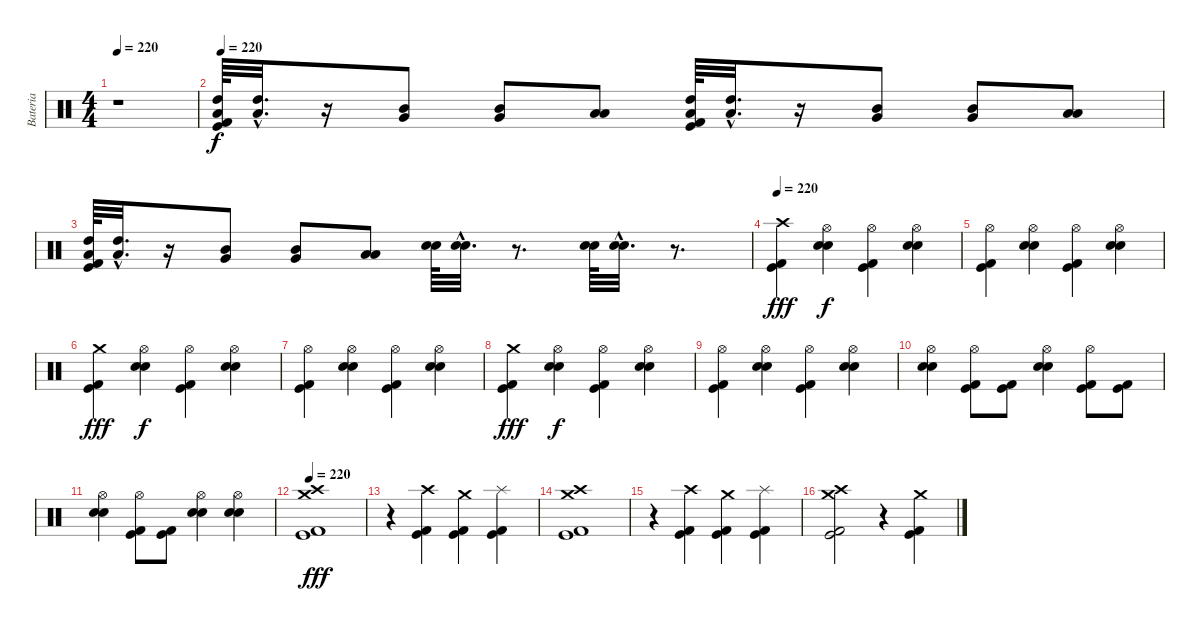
\track ("Bateria" "Bateria") {instrument percussion}
\staff {score}
\articulation defaults
\ts (4 4)
\tempo 220
\clef neutral
\ks c
r.1{dy fff} |
\tempo 220
("High Tom (hit)" "Low Tom (hit)" "Kick (hit) 2" "Kick (hit)").64{dy f} ("High Tom (hit)"{hac} "Low Tom (hit)"{hac}).32{d} r.16 ("Mid Tom (hit)" "Very Low Tom (hit)").8 ("Mid Tom (hit)" "Very Low Tom (hit)").8 ("Low Tom (hit)" "Low Floor Tom (hit)").8 ("High Tom (hit)" "Low Tom (hit)" "Kick (hit) 2" "Kick (hit)").64 ("High Tom (hit)"{hac} "Low Tom (hit)"{hac}).32{d} r.16 ("Mid Tom (hit)" "Very Low Tom (hit)").8 ("Mid Tom (hit)" "Very Low Tom (hit)").8 ("Low Tom (hit)" "Low Floor Tom (hit)").8 |
("High Tom (hit)" "Low Tom (hit)" "Kick (hit) 2" "Kick (hit)").64 ("High Tom (hit)"{hac} "Low Tom (hit)"{hac}).32{d} r.16 ("Mid Tom (hit)" "Very Low Tom (hit)").8 ("Mid Tom (hit)" "Very Low Tom (hit)").8 ("Low Tom (hit)" "Low Floor Tom (hit)").8 ("Electric Snare (hit)" "Snare (hit) 2").64 ("Electric Snare (hit)"{hac} "Snare (hit) 2"{hac}).32{d} r.8{d} ("Electric Snare (hit)" "Snare (hit) 2").64 ("Electric Snare (hit)"{hac} "Snare (hit) 2"{hac}).32{d} r.8{d} |
\tempo 220
("Crash high (hit)" "Kick (hit) 2" "Kick (hit)").4{dy fff} ("Hi-Hat (open)" "Electric Snare (hit)" "Snare (hit) 2").4{dy f} ("Hi-Hat (open)" "Kick (hit) 2" "Kick (hit)").4 ("Hi-Hat (open)" "Electric Snare (hit)" "Snare (hit) 2").4 |
("Hi-Hat (open)" "Kick (hit) 2" "Kick (hit)").4 ("Hi-Hat (open)" "Electric Snare (hit)" "Snare (hit) 2").4 ("Hi-Hat (open)" "Kick (hit) 2" "Kick (hit)").4 ("Hi-Hat (open)" "Electric Snare (hit)" "Snare (hit) 2").4 |
("Crash medium (hit)" "Kick (hit) 2" "Kick (hit)").4{dy fff} ("Hi-Hat (open)" "Electric Snare (hit)" "Snare (hit) 2").4{dy f} ("Hi-Hat (open)" "Kick (hit) 2" "Kick (hit)").4 ("Hi-Hat (open)" "Electric Snare (hit)" "Snare (hit) 2").4 |
("Hi-Hat (open)" "Kick (hit) 2" "Kick (hit)").4 ("Hi-Hat (open)" "Electric Snare (hit)" "Snare (hit) 2").4 ("Hi-Hat (open)" "Kick (hit) 2" "Kick (hit)").4 ("Hi-Hat (open)" "Electric Snare (hit)" "Snare (hit) 2").4 |
("Crash medium (hit)" "Kick (hit) 2" "Kick (hit)").4{dy fff} ("Hi-Hat (open)" "Electric Snare (hit)" "Snare (hit) 2").4{dy f} ("Hi-Hat (open)" "Kick (hit) 2" "Kick (hit)").4 ("Hi-Hat (open)" "Electric Snare (hit)" "Snare (hit) 2").4 |
("Hi-Hat (open)" "Kick (hit) 2" "Kick (hit)").4 ("Hi-Hat (open)" "Electric Snare (hit)" "Snare (hit) 2").4 ("Hi-Hat (open)" "Kick (hit) 2" "Kick (hit)").4 ("Hi-Hat (open)" "Electric Snare (hit)" "Snare (hit) 2").4 |
("Hi-Hat (open)" "Electric Snare (hit)" "Snare (hit) 2").4 ("Hi-Hat (open)" "Kick (hit) 2" "Kick (hit)").8 ("Kick (hit) 2" "Kick (hit)").8 ("Hi-Hat (open)" "Electric Snare (hit)" "Snare (hit) 2").4 ("Hi-Hat (open)" "Kick (hit) 2" "Kick (hit)").8 ("Kick (hit) 2" "Kick (hit)").8 |
("Hi-Hat (open)" "Electric Snare (hit)" "Snare (hit) 2").4 ("Hi-Hat (open)" "Kick (hit) 2" "Kick (hit)").8 ("Kick (hit) 2" "Kick (hit)").8 ("Hi-Hat (open)" "Electric Snare (hit)" "Snare (hit) 2").4 ("Hi-Hat (open)" "Electric Snare (hit)" "Snare (hit) 2").4 |
\tempo 220
("Crash high (hit)" "Crash medium (hit)" "Kick (hit) 2" "Kick (hit)").1{dy fff} |
r.4 ("Crash high (hit)" "Kick (hit) 2" "Kick (hit)").4 ("Crash medium (hit)" "Kick (hit) 2" "Kick (hit)").4 ("Splash (hit)" "Kick (hit) 2" "Kick (hit)").4 |
("Crash high (hit)" "Crash medium (hit)" "Kick (hit) 2" "Kick (hit)").1 |
r.4 ("Crash high (hit)" "Kick (hit) 2" "Kick (hit)").4 ("Crash medium (hit)" "Kick (hit) 2" "Kick (hit)").4 ("Splash (hit)" "Kick (hit) 2" "Kick (hit)").4 |
("Crash high (hit)" "Crash medium (hit)" "Kick (hit) 2" "Kick (hit)").2 r.4 ("Crash medium (hit)" "Kick (hit) 2" "Kick (hit)").4
